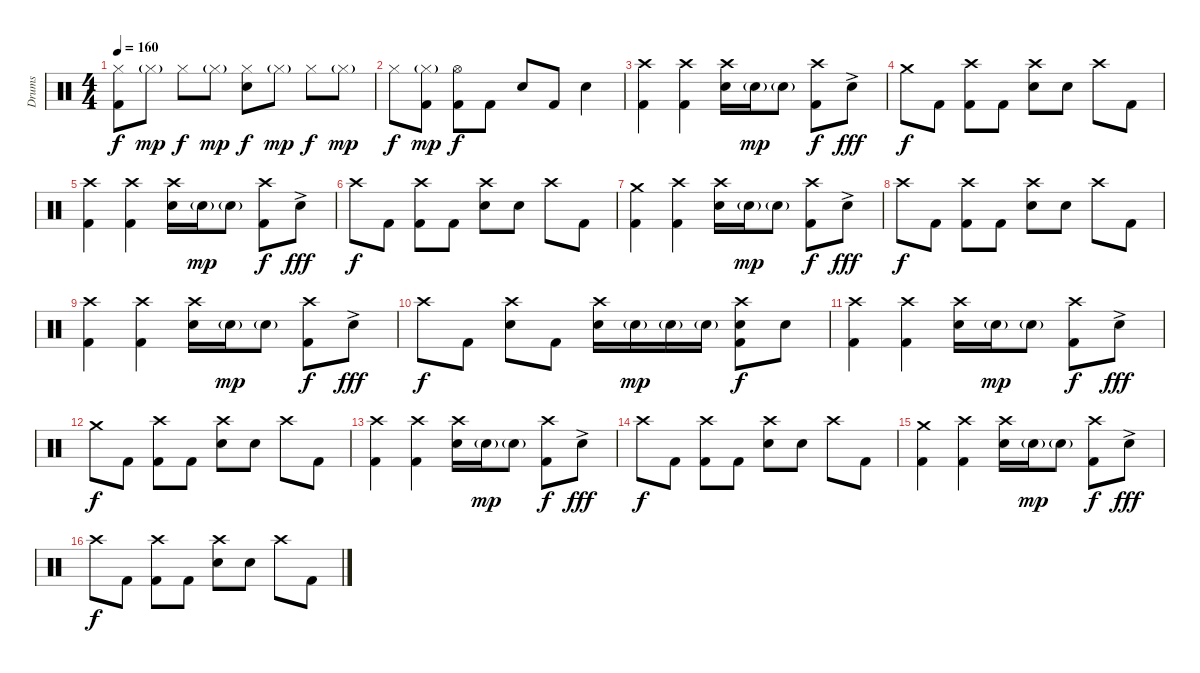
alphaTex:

\track ("Drums" "Drums") {instrument percussion}
\staff {score}
\articulation defaults
\ts (4 4)
\tempo 160
\clef neutral
\ks c
("Hi-Hat (closed)" "Kick (hit) 2").8{dy f} "Hi-Hat (closed)"{g}.8{dy mp} "Hi-Hat (closed)".8{dy f} "Hi-Hat (closed)"{g}.8{dy mp} ("Hi-Hat (closed)" "Snare (hit) 2").8{dy f} "Hi-Hat (closed)"{g}.8{dy mp} "Hi-Hat (closed)".8{dy f} "Hi-Hat (closed)"{g}.8{dy mp} |
"Hi-Hat (closed)".8{dy f} ("Hi-Hat (closed)"{g} "Kick (hit) 2").8{dy mp} ("Hi-Hat (open)" "Kick (hit) 2").8{dy f} "Kick (hit) 2".8 "Snare (hit) 2".8 "Kick (hit) 2".8 "Snare (hit) 2".4 |
("Crash high (hit)" "Kick (hit) 2").4 ("Crash high (hit)" "Kick (hit) 2").4 ("Crash high (hit)" "Snare (hit) 2").16 "Snare (hit) 2"{g}.16{dy mp} "Snare (hit) 2"{g}.8 ("Crash high (hit)" "Kick (hit) 2").8{dy f} "Snare (hit) 2"{ac}.8{dy fff} |
"Crash medium (hit)".8{dy f} "Kick (hit) 2".8 ("Crash high (hit)" "Kick (hit) 2").8 "Kick (hit) 2".8 ("Crash high (hit)" "Snare (hit) 2").8 "Snare (hit) 2".8 "Crash high (hit)".8 "Kick (hit) 2".8 |
("Crash high (hit)" "Kick (hit) 2").4 ("Crash high (hit)" "Kick (hit) 2").4 ("Crash high (hit)" "Snare (hit) 2").16 "Snare (hit) 2"{g}.16{dy mp} "Snare (hit) 2"{g}.8 ("Crash high (hit)" "Kick (hit) 2").8{dy f} "Snare (hit) 2"{ac}.8{dy fff} |
"Crash high (hit)".8{dy f} "Kick (hit) 2".8 ("Crash high (hit)" "Kick (hit) 2").8 "Kick (hit) 2".8 ("Crash high (hit)" "Snare (hit) 2").8 "Snare (hit) 2".8 "Crash high (hit)".8 "Kick (hit) 2".8 |
("Crash medium (hit)" "Kick (hit) 2").4 ("Crash high (hit)" "Kick (hit) 2").4 ("Crash high (hit)" "Snare (hit) 2").16 "Snare (hit) 2"{g}.16{dy mp} "Snare (hit) 2"{g}.8 ("Crash high (hit)" "Kick (hit) 2").8{dy f} "Snare (hit) 2"{ac}.8{dy fff} |
"Crash high (hit)".8{dy f} "Kick (hit) 2".8 ("Crash high (hit)" "Kick (hit) 2").8 "Kick (hit) 2".8 ("Crash high (hit)" "Snare (hit) 2").8 "Snare (hit) 2".8 "Crash high (hit)".8 "Kick (hit) 2".8 |
("Crash high (hit)" "Kick (hit) 2").4 ("Crash high (hit)" "Kick (hit) 2").4 ("Crash high (hit)" "Snare (hit) 2").16 "Snare (hit) 2"{g}.16{dy mp} "Snare (hit) 2"{g}.8 ("Crash high (hit)" "Kick (hit) 2").8{dy f} "Snare (hit) 2"{ac}.8{dy fff} |
"Crash high (hit)".8{dy f} "Kick (hit) 2".8 ("Crash high (hit)" "Snare (hit) 2").8 "Kick (hit) 2".8 ("Crash high (hit)" "Snare (hit) 2").16 "Snare (hit) 2"{g}.16{dy mp} "Snare (hit) 2"{g}.16 "Snare (hit) 2"{g}.16 ("Crash high (hit)" "Snare (hit) 2" "Kick (hit) 2").8{dy f} "Snare (hit) 2".8 |
("Crash high (hit)" "Kick (hit) 2").4 ("Crash high (hit)" "Kick (hit) 2").4 ("Crash high (hit)" "Snare (hit) 2").16 "Snare (hit) 2"{g}.16{dy mp} "Snare (hit) 2"{g}.8 ("Crash high (hit)" "Kick (hit) 2").8{dy f} "Snare (hit) 2"{ac}.8{dy fff} |
"Crash medium (hit)".8{dy f} "Kick (hit) 2".8 ("Crash high (hit)" "Kick (hit) 2").8 "Kick (hit) 2".8 ("Crash high (hit)" "Snare (hit) 2").8 "Snare (hit) 2".8 "Crash high (hit)".8 "Kick (hit) 2".8 |
("Crash high (hit)" "Kick (hit) 2").4 ("Crash high (hit)" "Kick (hit) 2").4 ("Crash high (hit)" "Snare (hit) 2").16 "Snare (hit) 2"{g}.16{dy mp} "Snare (hit) 2"{g}.8 ("Crash high (hit)" "Kick (hit) 2").8{dy f} "Snare (hit) 2"{ac}.8{dy fff} |
"Crash high (hit)".8{dy f} "Kick (hit) 2".8 ("Crash high (hit)" "Kick (hit) 2").8 "Kick (hit) 2".8 ("Crash high (hit)" "Snare (hit) 2").8 "Snare (hit) 2".8 "Crash high (hit)".8 "Kick (hit) 2".8 |
("Crash medium (hit)" "Kick (hit) 2").4 ("Crash high (hit)" "Kick (hit) 2").4 ("Crash high (hit)" "Snare (hit) 2").16 "Snare (hit) 2"{g}.16{dy mp} "Snare (hit) 2"{g}.8 ("Crash high (hit)" "Kick (hit) 2").8{dy f} "Snare (hit) 2"{ac}.8{dy fff} |
"Crash high (hit)".8{dy f} "Kick (hit) 2".8 ("Crash high (hit)" "Kick (hit) 2").8 "Kick (hit) 2".8 ("Crash high (hit)" "Snare (hit) 2").8 "Snare (hit) 2".8 "Crash high (hit)".8 "Kick (hit) 2".8
